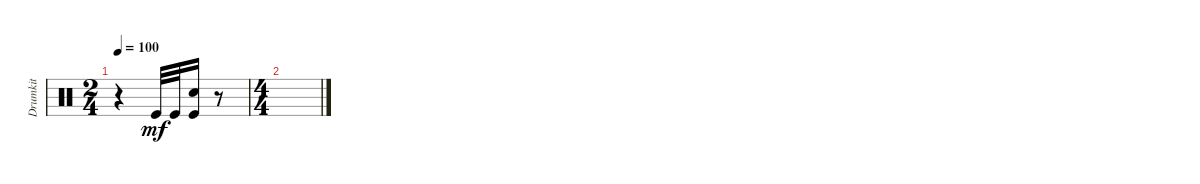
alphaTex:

\track ("Drumkit" "Drumkit") {instrument percussion}
\staff {score}
\articulation defaults
\ts (2 4)
\tempo 100
\clef neutral
\ks c
r.4{dy mf} "Kick (hit)".32 "Kick (hit)".32 ("Kick (hit)" "Snare (hit) 2").16 r.8 |
\ts (4 4)
